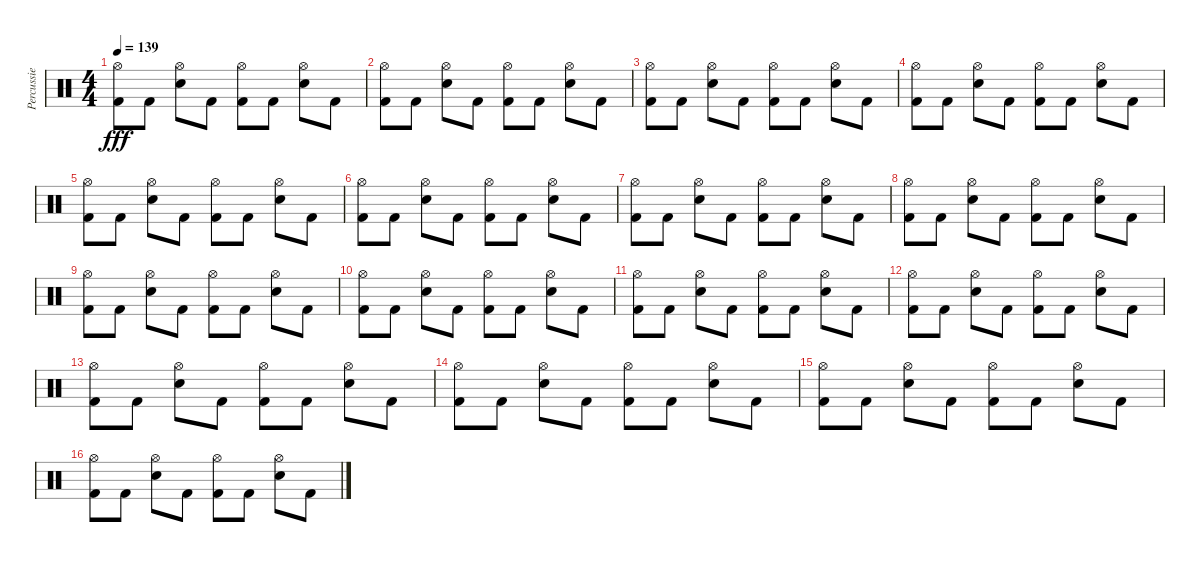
\track ("Percussie" "Percussie") {instrument percussion}
\staff {score}
\articulation defaults
\ts (4 4)
\tempo 139
\clef neutral
\ks c
("Hi-Hat (open)" "Kick (hit) 2").8{dy fff} "Kick (hit) 2".8 ("Hi-Hat (open)" "Electric Snare (hit)").8 "Kick (hit) 2".8 ("Hi-Hat (open)" "Kick (hit) 2").8 "Kick (hit) 2".8 ("Hi-Hat (open)" "Electric Snare (hit)").8 "Kick (hit) 2".8 |
("Hi-Hat (open)" "Kick (hit) 2").8 "Kick (hit) 2".8 ("Hi-Hat (open)" "Electric Snare (hit)").8 "Kick (hit) 2".8 ("Hi-Hat (open)" "Kick (hit) 2").8 "Kick (hit) 2".8 ("Hi-Hat (open)" "Electric Snare (hit)").8 "Kick (hit) 2".8 |
("Hi-Hat (open)" "Kick (hit) 2").8 "Kick (hit) 2".8 ("Hi-Hat (open)" "Electric Snare (hit)").8 "Kick (hit) 2".8 ("Hi-Hat (open)" "Kick (hit) 2").8 "Kick (hit) 2".8 ("Hi-Hat (open)" "Electric Snare (hit)").8 "Kick (hit) 2".8 |
("Hi-Hat (open)" "Kick (hit) 2").8 "Kick (hit) 2".8 ("Hi-Hat (open)" "Electric Snare (hit)").8 "Kick (hit) 2".8 ("Hi-Hat (open)" "Kick (hit) 2").8 "Kick (hit) 2".8 ("Hi-Hat (open)" "Electric Snare (hit)").8 "Kick (hit) 2".8 |
("Hi-Hat (open)" "Kick (hit) 2").8 "Kick (hit) 2".8 ("Hi-Hat (open)" "Electric Snare (hit)").8 "Kick (hit) 2".8 ("Hi-Hat (open)" "Kick (hit) 2").8 "Kick (hit) 2".8 ("Hi-Hat (open)" "Electric Snare (hit)").8 "Kick (hit) 2".8 |
("Hi-Hat (open)" "Kick (hit) 2").8 "Kick (hit) 2".8 ("Hi-Hat (open)" "Electric Snare (hit)").8 "Kick (hit) 2".8 ("Hi-Hat (open)" "Kick (hit) 2").8 "Kick (hit) 2".8 ("Hi-Hat (open)" "Electric Snare (hit)").8 "Kick (hit) 2".8 |
("Hi-Hat (open)" "Kick (hit) 2").8 "Kick (hit) 2".8 ("Hi-Hat (open)" "Electric Snare (hit)").8 "Kick (hit) 2".8 ("Hi-Hat (open)" "Kick (hit) 2").8 "Kick (hit) 2".8 ("Hi-Hat (open)" "Electric Snare (hit)").8 "Kick (hit) 2".8 |
("Hi-Hat (open)" "Kick (hit) 2").8 "Kick (hit) 2".8 ("Hi-Hat (open)" "Electric Snare (hit)").8 "Kick (hit) 2".8 ("Hi-Hat (open)" "Kick (hit) 2").8 "Kick (hit) 2".8 ("Hi-Hat (open)" "Electric Snare (hit)").8 "Kick (hit) 2".8 |
("Hi-Hat (open)" "Kick (hit) 2").8 "Kick (hit) 2".8 ("Hi-Hat (open)" "Electric Snare (hit)").8 "Kick (hit) 2".8 ("Hi-Hat (open)" "Kick (hit) 2").8 "Kick (hit) 2".8 ("Hi-Hat (open)" "Electric Snare (hit)").8 "Kick (hit) 2".8 |
("Hi-Hat (open)" "Kick (hit) 2").8 "Kick (hit) 2".8 ("Hi-Hat (open)" "Electric Snare (hit)").8 "Kick (hit) 2".8 ("Hi-Hat (open)" "Kick (hit) 2").8 "Kick (hit) 2".8 ("Hi-Hat (open)" "Electric Snare (hit)").8 "Kick (hit) 2".8 |
("Hi-Hat (open)" "Kick (hit) 2").8 "Kick (hit) 2".8 ("Hi-Hat (open)" "Electric Snare (hit)").8 "Kick (hit) 2".8 ("Hi-Hat (open)" "Kick (hit) 2").8 "Kick (hit) 2".8 ("Hi-Hat (open)" "Electric Snare (hit)").8 "Kick (hit) 2".8 |
("Hi-Hat (open)" "Kick (hit) 2").8 "Kick (hit) 2".8 ("Hi-Hat (open)" "Electric Snare (hit)").8 "Kick (hit) 2".8 ("Hi-Hat (open)" "Kick (hit) 2").8 "Kick (hit) 2".8 ("Hi-Hat (open)" "Electric Snare (hit)").8 "Kick (hit) 2".8 |
("Hi-Hat (open)" "Kick (hit) 2").8 "Kick (hit) 2".8 ("Hi-Hat (open)" "Electric Snare (hit)").8 "Kick (hit) 2".8 ("Hi-Hat (open)" "Kick (hit) 2").8 "Kick (hit) 2".8 ("Hi-Hat (open)" "Electric Snare (hit)").8 "Kick (hit) 2".8 |
("Hi-Hat (open)" "Kick (hit) 2").8 "Kick (hit) 2".8 ("Hi-Hat (open)" "Electric Snare (hit)").8 "Kick (hit) 2".8 ("Hi-Hat (open)" "Kick (hit) 2").8 "Kick (hit) 2".8 ("Hi-Hat (open)" "Electric Snare (hit)").8 "Kick (hit) 2".8 |
("Hi-Hat (open)" "Kick (hit) 2").8 "Kick (hit) 2".8 ("Hi-Hat (open)" "Electric Snare (hit)").8 "Kick (hit) 2".8 ("Hi-Hat (open)" "Kick (hit) 2").8 "Kick (hit) 2".8 ("Hi-Hat (open)" "Electric Snare (hit)").8 "Kick (hit) 2".8 |
("Hi-Hat (open)" "Kick (hit) 2").8 "Kick (hit) 2".8 ("Hi-Hat (open)" "Electric Snare (hit)").8 "Kick (hit) 2".8 ("Hi-Hat (open)" "Kick (hit) 2").8 "Kick (hit) 2".8 ("Hi-Hat (open)" "Electric Snare (hit)").8 "Kick (hit) 2".8
